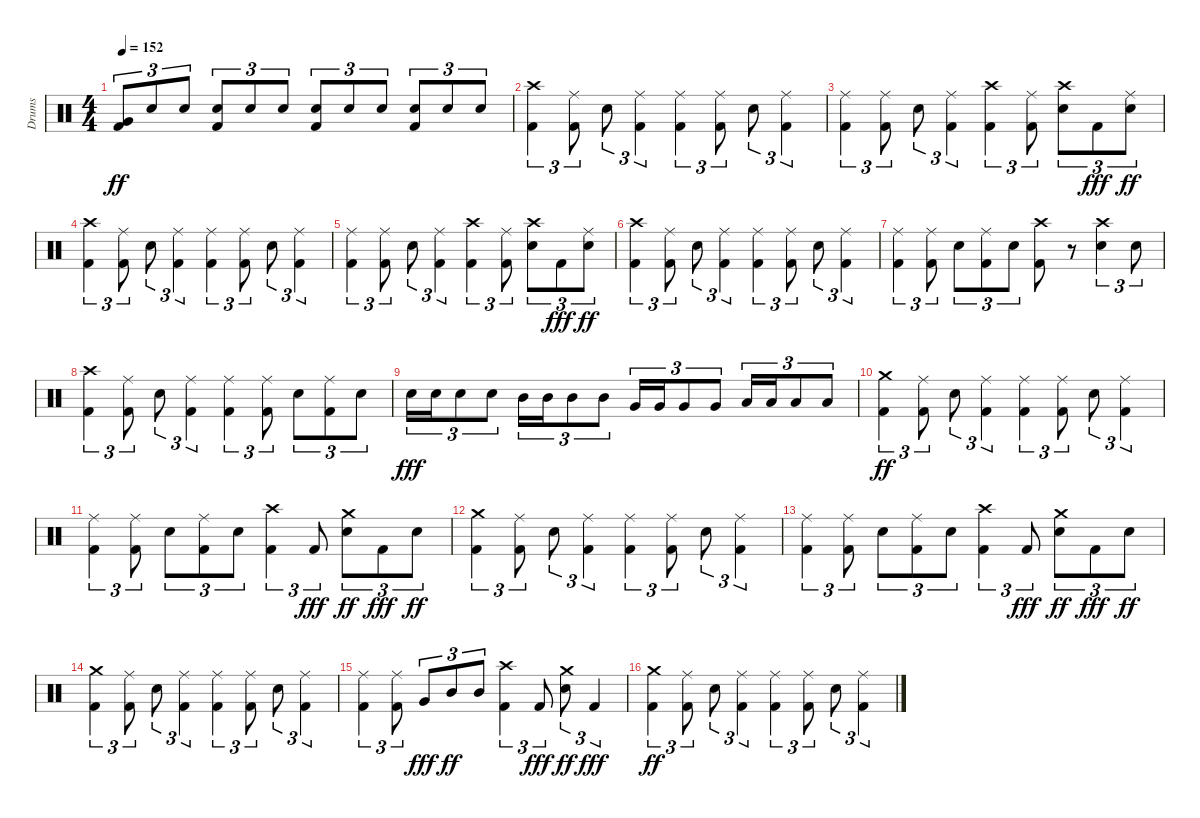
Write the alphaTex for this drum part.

\track ("Drums" "Drums") {instrument percussion}
\staff {score}
\articulation defaults
\ts (4 4)
\tempo 152
\clef neutral
\ks c
("Kick (hit) 2" "Very Low Tom (hit)").8{tu (3 2) dy ff} "Snare (hit) 2".8{tu (3 2)} "Snare (hit) 2".8{tu (3 2)} ("Kick (hit) 2" "Snare (hit) 2").8{tu (3 2)} "Snare (hit) 2".8{tu (3 2)} "Snare (hit) 2".8{tu (3 2)} ("Kick (hit) 2" "Snare (hit) 2").8{tu (3 2)} "Snare (hit) 2".8{tu (3 2)} "Snare (hit) 2".8{tu (3 2)} ("Kick (hit) 2" "Snare (hit) 2").8{tu (3 2)} "Snare (hit) 2".8{tu (3 2)} "Snare (hit) 2".8{tu (3 2)} |
("Kick (hit) 2" "Crash high (hit)").4{tu (3 2)} ("Kick (hit) 2" "Ride (middle)").8{tu (3 2)} "Snare (hit) 2".8{tu (3 2)} ("Kick (hit) 2" "Ride (middle)").4{tu (3 2)} ("Kick (hit) 2" "Ride (middle)").4{tu (3 2)} ("Kick (hit) 2" "Ride (middle)").8{tu (3 2)} "Snare (hit) 2".8{tu (3 2)} ("Kick (hit) 2" "Ride (middle)").4{tu (3 2)} |
("Kick (hit) 2" "Ride (middle)").4{tu (3 2)} ("Kick (hit) 2" "Ride (middle)").8{tu (3 2)} "Snare (hit) 2".8{tu (3 2)} ("Kick (hit) 2" "Ride (middle)").4{tu (3 2)} ("Kick (hit) 2" "Crash high (hit)").4{tu (3 2)} ("Kick (hit) 2" "Ride (middle)").8{tu (3 2)} ("Snare (hit) 2" "Crash high (hit)").8{tu (3 2)} "Kick (hit) 2".8{tu (3 2) dy fff} ("Snare (hit) 2" "Ride (middle)").8{tu (3 2) dy ff} |
("Kick (hit) 2" "Crash high (hit)").4{tu (3 2)} ("Kick (hit) 2" "Ride (middle)").8{tu (3 2)} "Snare (hit) 2".8{tu (3 2)} ("Kick (hit) 2" "Ride (middle)").4{tu (3 2)} ("Kick (hit) 2" "Ride (middle)").4{tu (3 2)} ("Kick (hit) 2" "Ride (middle)").8{tu (3 2)} "Snare (hit) 2".8{tu (3 2)} ("Kick (hit) 2" "Ride (middle)").4{tu (3 2)} |
("Kick (hit) 2" "Ride (middle)").4{tu (3 2)} ("Kick (hit) 2" "Ride (middle)").8{tu (3 2)} "Snare (hit) 2".8{tu (3 2)} ("Kick (hit) 2" "Ride (middle)").4{tu (3 2)} ("Kick (hit) 2" "Crash high (hit)").4{tu (3 2)} ("Kick (hit) 2" "Ride (middle)").8{tu (3 2)} ("Snare (hit) 2" "Crash high (hit)").8{tu (3 2)} "Kick (hit) 2".8{tu (3 2) dy fff} ("Snare (hit) 2" "Ride (middle)").8{tu (3 2) dy ff} |
("Kick (hit) 2" "Crash high (hit)").4{tu (3 2)} ("Kick (hit) 2" "Ride (middle)").8{tu (3 2)} "Snare (hit) 2".8{tu (3 2)} ("Kick (hit) 2" "Ride (middle)").4{tu (3 2)} ("Kick (hit) 2" "Ride (middle)").4{tu (3 2)} ("Kick (hit) 2" "Ride (middle)").8{tu (3 2)} "Snare (hit) 2".8{tu (3 2)} ("Kick (hit) 2" "Ride (middle)").4{tu (3 2)} |
("Kick (hit) 2" "Ride (middle)").4{tu (3 2)} ("Kick (hit) 2" "Ride (middle)").8{tu (3 2)} "Snare (hit) 2".8{tu (3 2)} ("Kick (hit) 2" "Ride (middle)").8{tu (3 2)} "Snare (hit) 2".8{tu (3 2)} ("Kick (hit) 2" "Crash high (hit)").8 r.8 ("Snare (hit) 2" "Crash high (hit)").4{tu (3 2)} "Snare (hit) 2".8{tu (3 2)} |
("Kick (hit) 2" "Crash high (hit)").4{tu (3 2)} ("Kick (hit) 2" "Ride (middle)").8{tu (3 2)} "Snare (hit) 2".8{tu (3 2)} ("Kick (hit) 2" "Ride (middle)").4{tu (3 2)} ("Kick (hit) 2" "Ride (middle)").4{tu (3 2)} ("Kick (hit) 2" "Ride (middle)").8{tu (3 2)} "Snare (hit) 2".8{tu (3 2)} ("Kick (hit) 2" "Ride (middle)").8{tu (3 2)} "Snare (hit) 2".8{tu (3 2)} |
"Snare (hit) 2".16{tu (3 2) dy fff} "Snare (hit) 2".16{tu (3 2)} "Snare (hit) 2".8{tu (3 2)} "Snare (hit) 2".8{tu (3 2)} "Mid Tom (hit)".16{tu (3 2)} "Mid Tom (hit)".16{tu (3 2)} "Mid Tom (hit)".8{tu (3 2)} "Mid Tom (hit)".8{tu (3 2)} "Very Low Tom (hit)".16{tu (3 2)} "Very Low Tom (hit)".16{tu (3 2)} "Very Low Tom (hit)".8{tu (3 2)} "Very Low Tom (hit)".8{tu (3 2)} "Low Floor Tom (hit)".16{tu (3 2)} "Low Floor Tom (hit)".16{tu (3 2)} "Low Floor Tom (hit)".8{tu (3 2)} "Low Floor Tom (hit)".8{tu (3 2)} |
("Kick (hit) 2" "Crash medium (hit)").4{tu (3 2) dy ff} ("Kick (hit) 2" "Ride (middle)").8{tu (3 2)} "Snare (hit) 2".8{tu (3 2)} ("Kick (hit) 2" "Ride (middle)").4{tu (3 2)} ("Kick (hit) 2" "Ride (middle)").4{tu (3 2)} ("Kick (hit) 2" "Ride (middle)").8{tu (3 2)} "Snare (hit) 2".8{tu (3 2)} ("Kick (hit) 2" "Ride (middle)").4{tu (3 2)} |
("Kick (hit) 2" "Ride (middle)").4{tu (3 2)} ("Kick (hit) 2" "Ride (middle)").8{tu (3 2)} "Snare (hit) 2".8{tu (3 2)} ("Kick (hit) 2" "Ride (middle)").8{tu (3 2)} "Snare (hit) 2".8{tu (3 2)} ("Kick (hit) 2" "Crash high (hit)").4{tu (3 2)} "Kick (hit) 2".8{tu (3 2) dy fff} ("Snare (hit) 2" "Crash medium (hit)").8{tu (3 2) dy ff} "Kick (hit) 2".8{tu (3 2) dy fff} "Snare (hit) 2".8{tu (3 2) dy ff} |
("Kick (hit) 2" "Crash medium (hit)").4{tu (3 2)} ("Kick (hit) 2" "Ride (middle)").8{tu (3 2)} "Snare (hit) 2".8{tu (3 2)} ("Kick (hit) 2" "Ride (middle)").4{tu (3 2)} ("Kick (hit) 2" "Ride (middle)").4{tu (3 2)} ("Kick (hit) 2" "Ride (middle)").8{tu (3 2)} "Snare (hit) 2".8{tu (3 2)} ("Kick (hit) 2" "Ride (middle)").4{tu (3 2)} |
("Kick (hit) 2" "Ride (middle)").4{tu (3 2)} ("Kick (hit) 2" "Ride (middle)").8{tu (3 2)} "Snare (hit) 2".8{tu (3 2)} ("Kick (hit) 2" "Ride (middle)").8{tu (3 2)} "Snare (hit) 2".8{tu (3 2)} ("Kick (hit) 2" "Crash high (hit)").4{tu (3 2)} "Kick (hit) 2".8{tu (3 2) dy fff} ("Snare (hit) 2" "Crash medium (hit)").8{tu (3 2) dy ff} "Kick (hit) 2".8{tu (3 2) dy fff} "Snare (hit) 2".8{tu (3 2) dy ff} |
("Kick (hit) 2" "Crash medium (hit)").4{tu (3 2)} ("Kick (hit) 2" "Ride (middle)").8{tu (3 2)} "Snare (hit) 2".8{tu (3 2)} ("Kick (hit) 2" "Ride (middle)").4{tu (3 2)} ("Kick (hit) 2" "Ride (middle)").4{tu (3 2)} ("Kick (hit) 2" "Ride (middle)").8{tu (3 2)} "Snare (hit) 2".8{tu (3 2)} ("Kick (hit) 2" "Ride (middle)").4{tu (3 2)} |
("Kick (hit) 2" "Ride (middle)").4{tu (3 2)} ("Kick (hit) 2" "Ride (middle)").8{tu (3 2)} "Very Low Tom (hit)".8{tu (3 2) dy fff} "Mid Tom (hit)".8{tu (3 2) dy ff} "Mid Tom (hit)".8{tu (3 2)} ("Kick (hit) 2" "Crash high (hit)").4{tu (3 2)} "Kick (hit) 2".8{tu (3 2) dy fff} ("Snare (hit) 2" "Crash medium (hit)").8{tu (3 2) dy ff} "Kick (hit) 2".4{tu (3 2) dy fff} |
("Kick (hit) 2" "Crash medium (hit)").4{tu (3 2) dy ff} ("Kick (hit) 2" "Ride (middle)").8{tu (3 2)} "Snare (hit) 2".8{tu (3 2)} ("Kick (hit) 2" "Ride (middle)").4{tu (3 2)} ("Kick (hit) 2" "Ride (middle)").4{tu (3 2)} ("Kick (hit) 2" "Ride (middle)").8{tu (3 2)} "Snare (hit) 2".8{tu (3 2)} ("Kick (hit) 2" "Ride (middle)").4{tu (3 2)}
